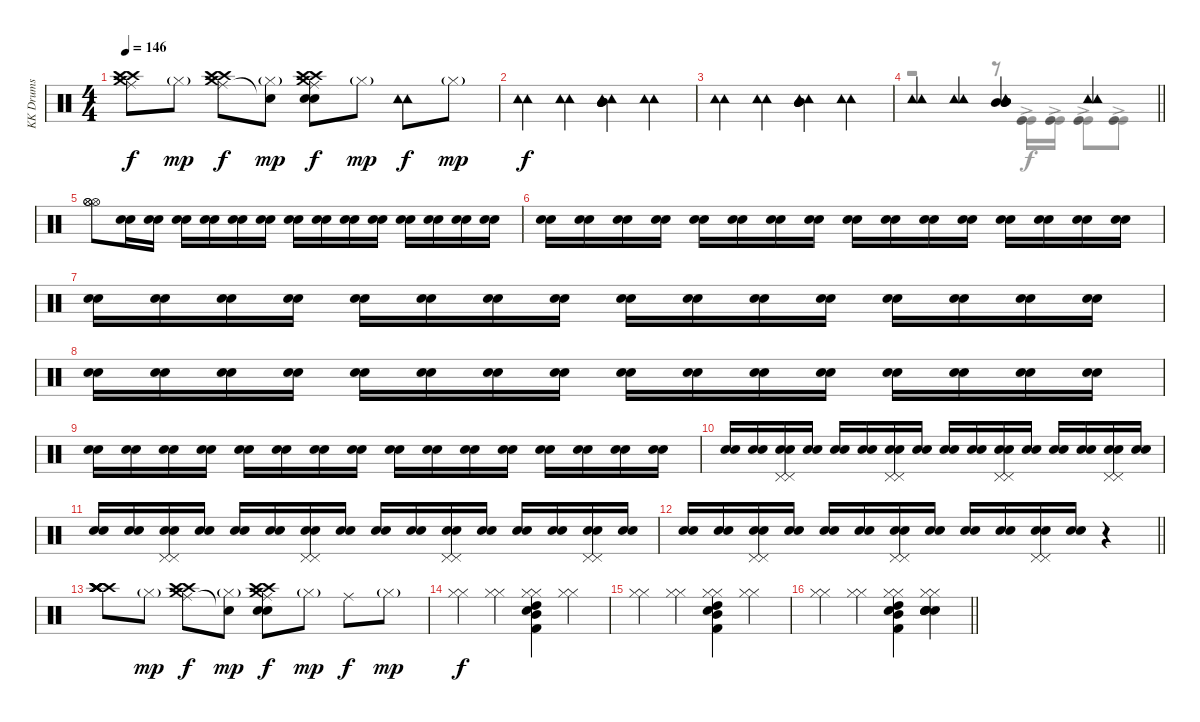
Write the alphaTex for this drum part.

\track ("KK Drums" "KK Drums") {instrument percussion}
\staff {score}
\articulation defaults
\voice
\ts (4 4)
\tempo 146
\clef neutral
\ks c
("Crash high (hit)" "Ride (middle)" "Crash medium (hit)" "Crash high (hit)").8{dy f} "Hi-Hat (closed)"{g}.8{dy mp} ("Crash high (hit)" "Ride (middle)" "Crash medium (hit)" "Crash high (hit)").8{dy f} ("Hi-Hat (closed)"{g} "Snare (hit)"{t}).8{dy mp} ("Crash high (hit)" "Ride (middle)" "Snare (hit) 2" "Snare (hit) 2" "Crash medium (hit)" "Crash high (hit)").8{dy f} "Hi-Hat (closed)"{g}.8{dy mp} ("Tambourine (hit)" "Tambourine (hit)").8{dy f} "Hi-Hat (closed)"{g}.8{dy mp} |
("Tambourine (hit)" "Tambourine (hit)").4{dy f} ("Tambourine (hit)" "Tambourine (hit)").4 ("Mid Tom (hit)" "Mid Tom (hit)" "Mid Tom (hit)" "Tambourine (hit)" "Tambourine (hit)").4 ("Tambourine (hit)" "Tambourine (hit)").4 |
("Tambourine (hit)" "Tambourine (hit)").4 ("Tambourine (hit)" "Tambourine (hit)").4 ("Mid Tom (hit)" "Mid Tom (hit)" "Mid Tom (hit)" "Tambourine (hit)" "Tambourine (hit)").4 ("Tambourine (hit)" "Tambourine (hit)").4 |
\barLineRight lightlight
("Tambourine (hit)" "Tambourine (hit)").4 ("Tambourine (hit)" "Tambourine (hit)").4 ("Mid Tom (hit)" "Mid Tom (hit)" "Mid Tom (hit)" "Tambourine (hit)" "Tambourine (hit)").4 ("Tambourine (hit)" "Tambourine (hit)").4 |
("Hi-Hat (open)" "Hi-Hat (open)" "Hi-Hat (open)").8{volume 16} ("Snare (hit) 2" "Snare (hit) 2").16 ("Snare (hit) 2" "Snare (hit) 2").16 ("Snare (hit) 2" "Snare (hit) 2").16 ("Snare (hit) 2" "Snare (hit) 2").16 ("Snare (hit) 2" "Snare (hit) 2").16 ("Snare (hit) 2" "Snare (hit) 2").16 ("Snare (hit) 2" "Snare (hit) 2").16 ("Snare (hit) 2" "Snare (hit) 2").16 ("Snare (hit) 2" "Snare (hit) 2").16 ("Snare (hit) 2" "Snare (hit) 2").16 ("Snare (hit) 2" "Snare (hit) 2").16 ("Snare (hit) 2" "Snare (hit) 2").16 ("Snare (hit) 2" "Snare (hit) 2").16 ("Snare (hit) 2" "Snare (hit) 2").16 |
("Snare (hit) 2" "Snare (hit) 2").16 ("Snare (hit) 2" "Snare (hit) 2").16 ("Snare (hit) 2" "Snare (hit) 2").16 ("Snare (hit) 2" "Snare (hit) 2").16 ("Snare (hit) 2" "Snare (hit) 2").16 ("Snare (hit) 2" "Snare (hit) 2").16 ("Snare (hit) 2" "Snare (hit) 2").16 ("Snare (hit) 2" "Snare (hit) 2").16 ("Snare (hit) 2" "Snare (hit) 2").16 ("Snare (hit) 2" "Snare (hit) 2").16 ("Snare (hit) 2" "Snare (hit) 2").16 ("Snare (hit) 2" "Snare (hit) 2").16 ("Snare (hit) 2" "Snare (hit) 2").16 ("Snare (hit) 2" "Snare (hit) 2").16 ("Snare (hit) 2" "Snare (hit) 2").16 ("Snare (hit) 2" "Snare (hit) 2").16 |
("Snare (hit) 2" "Snare (hit) 2").16 ("Snare (hit) 2" "Snare (hit) 2").16 ("Snare (hit) 2" "Snare (hit) 2").16 ("Snare (hit) 2" "Snare (hit) 2").16 ("Snare (hit) 2" "Snare (hit) 2").16 ("Snare (hit) 2" "Snare (hit) 2").16 ("Snare (hit) 2" "Snare (hit) 2").16 ("Snare (hit) 2" "Snare (hit) 2").16 ("Snare (hit) 2" "Snare (hit) 2").16 ("Snare (hit) 2" "Snare (hit) 2").16 ("Snare (hit) 2" "Snare (hit) 2").16 ("Snare (hit) 2" "Snare (hit) 2").16 ("Snare (hit) 2" "Snare (hit) 2").16 ("Snare (hit) 2" "Snare (hit) 2").16 ("Snare (hit) 2" "Snare (hit) 2").16 ("Snare (hit) 2" "Snare (hit) 2").16 |
("Snare (hit) 2" "Snare (hit) 2").16 ("Snare (hit) 2" "Snare (hit) 2").16 ("Snare (hit) 2" "Snare (hit) 2").16 ("Snare (hit) 2" "Snare (hit) 2").16 ("Snare (hit) 2" "Snare (hit) 2").16 ("Snare (hit) 2" "Snare (hit) 2").16 ("Snare (hit) 2" "Snare (hit) 2").16 ("Snare (hit) 2" "Snare (hit) 2").16 ("Snare (hit) 2" "Snare (hit) 2").16 ("Snare (hit) 2" "Snare (hit) 2").16 ("Snare (hit) 2" "Snare (hit) 2").16 ("Snare (hit) 2" "Snare (hit) 2").16 ("Snare (hit) 2" "Snare (hit) 2").16 ("Snare (hit) 2" "Snare (hit) 2").16 ("Snare (hit) 2" "Snare (hit) 2").16 ("Snare (hit) 2" "Snare (hit) 2").16 |
("Snare (hit) 2" "Snare (hit) 2").16 ("Snare (hit) 2" "Snare (hit) 2").16 ("Snare (hit) 2" "Snare (hit) 2").16 ("Snare (hit) 2" "Snare (hit) 2").16 ("Snare (hit) 2" "Snare (hit) 2").16 ("Snare (hit) 2" "Snare (hit) 2").16 ("Snare (hit) 2" "Snare (hit) 2").16 ("Snare (hit) 2" "Snare (hit) 2").16 ("Snare (hit) 2" "Snare (hit) 2").16 ("Snare (hit) 2" "Snare (hit) 2").16 ("Snare (hit) 2" "Snare (hit) 2").16 ("Snare (hit) 2" "Snare (hit) 2").16 ("Snare (hit) 2" "Snare (hit) 2").16 ("Snare (hit) 2" "Snare (hit) 2").16 ("Snare (hit) 2" "Snare (hit) 2").16 ("Snare (hit) 2" "Snare (hit) 2").16 |
("Snare (hit) 2" "Snare (hit) 2").16 ("Snare (hit) 2" "Snare (hit) 2").16 ("Pedal Hi-Hat (hit)" "Pedal Hi-Hat (hit)" "Snare (hit) 2" "Snare (hit) 2").16 ("Snare (hit) 2" "Snare (hit) 2").16 ("Snare (hit) 2" "Snare (hit) 2").16 ("Snare (hit) 2" "Snare (hit) 2").16 ("Pedal Hi-Hat (hit)" "Pedal Hi-Hat (hit)" "Snare (hit) 2" "Snare (hit) 2").16 ("Snare (hit) 2" "Snare (hit) 2").16 ("Snare (hit) 2" "Snare (hit) 2").16 ("Snare (hit) 2" "Snare (hit) 2").16 ("Pedal Hi-Hat (hit)" "Pedal Hi-Hat (hit)" "Snare (hit) 2" "Snare (hit) 2").16 ("Snare (hit) 2" "Snare (hit) 2").16 ("Snare (hit) 2" "Snare (hit) 2").16 ("Snare (hit) 2" "Snare (hit) 2").16 ("Pedal Hi-Hat (hit)" "Pedal Hi-Hat (hit)" "Snare (hit) 2" "Snare (hit) 2").16 ("Snare (hit) 2" "Snare (hit) 2").16 |
("Snare (hit) 2" "Snare (hit) 2").16 ("Snare (hit) 2" "Snare (hit) 2").16 ("Pedal Hi-Hat (hit)" "Pedal Hi-Hat (hit)" "Snare (hit) 2" "Snare (hit) 2").16 ("Snare (hit) 2" "Snare (hit) 2").16 ("Snare (hit) 2" "Snare (hit) 2").16 ("Snare (hit) 2" "Snare (hit) 2").16 ("Pedal Hi-Hat (hit)" "Pedal Hi-Hat (hit)" "Snare (hit) 2" "Snare (hit) 2").16 ("Snare (hit) 2" "Snare (hit) 2").16 ("Snare (hit) 2" "Snare (hit) 2").16 ("Snare (hit) 2" "Snare (hit) 2").16 ("Pedal Hi-Hat (hit)" "Pedal Hi-Hat (hit)" "Snare (hit) 2" "Snare (hit) 2").16 ("Snare (hit) 2" "Snare (hit) 2").16 ("Snare (hit) 2" "Snare (hit) 2").16 ("Snare (hit) 2" "Snare (hit) 2").16 ("Pedal Hi-Hat (hit)" "Pedal Hi-Hat (hit)" "Snare (hit) 2" "Snare (hit) 2").16 ("Snare (hit) 2" "Snare (hit) 2").16 |
\barLineRight lightlight
("Snare (hit) 2" "Snare (hit) 2").16 ("Snare (hit) 2" "Snare (hit) 2").16 ("Pedal Hi-Hat (hit)" "Pedal Hi-Hat (hit)" "Snare (hit) 2" "Snare (hit) 2").16 ("Snare (hit) 2" "Snare (hit) 2").16 ("Snare (hit) 2" "Snare (hit) 2").16 ("Snare (hit) 2" "Snare (hit) 2").16 ("Pedal Hi-Hat (hit)" "Pedal Hi-Hat (hit)" "Snare (hit) 2" "Snare (hit) 2").16 ("Snare (hit) 2" "Snare (hit) 2").16 ("Snare (hit) 2" "Snare (hit) 2").16 ("Snare (hit) 2" "Snare (hit) 2").16 ("Pedal Hi-Hat (hit)" "Pedal Hi-Hat (hit)" "Snare (hit) 2" "Snare (hit) 2").16 ("Snare (hit) 2" "Snare (hit) 2").16 r.4 |
("Crash high (hit)" "Crash high (hit)" "Crash high (hit)" "Crash high (hit)" "Crash high (hit)" "Crash high (hit)").8 "Hi-Hat (closed)"{g}.8{dy mp} ("Crash high (hit)" "Ride (middle)" "Crash medium (hit)" "Crash high (hit)").8{dy f} ("Hi-Hat (closed)"{g} "Snare (hit)"{t}).8{dy mp} ("Crash high (hit)" "Ride (middle)" "Snare (hit) 2" "Snare (hit) 2" "Crash medium (hit)" "Crash high (hit)").8{dy f} "Hi-Hat (closed)"{g}.8{dy mp} "Ride (middle)".8{dy f} "Hi-Hat (closed)"{g}.8{dy mp} |
("Hi-Hat (closed)" "Hi-Hat (closed)").4{dy f} ("Hi-Hat (closed)" "Hi-Hat (closed)").4 ("Kick (hit) 2" "High Tom (hit)" "Mid Tom (hit)" "Hi-Hat (closed)" "Hi-Hat (closed)" "Snare (hit) 2").4 ("Hi-Hat (closed)" "Hi-Hat (closed)").4 |
("Hi-Hat (closed)" "Hi-Hat (closed)").4 ("Hi-Hat (closed)" "Hi-Hat (closed)").4 ("Kick (hit) 2" "High Tom (hit)" "Mid Tom (hit)" "Hi-Hat (closed)" "Hi-Hat (closed)" "Snare (hit) 2").4 ("Hi-Hat (closed)" "Hi-Hat (closed)").4 |
\barLineRight lightlight
("Hi-Hat (closed)" "Hi-Hat (closed)").4 ("Hi-Hat (closed)" "Hi-Hat (closed)").4 ("Kick (hit) 2" "High Tom (hit)" "Mid Tom (hit)" "Hi-Hat (closed)" "Hi-Hat (closed)" "Snare (hit) 2").4 ("Snare (hit)" "Snare (hit)" "Snare (hit)" "Hi-Hat (closed)" "Hi-Hat (closed)" "Snare (hit)").4
\voice
\clef neutral
\ottava regular
\simile none
\ks c
|
|
|
\barLineRight lightlight
r.2 r.8 ("Kick (hit)"{ac} "Kick (hit)"{ac} "Kick (hit)"{ac}).16 ("Kick (hit)"{ac} "Kick (hit)"{ac} "Kick (hit)"{ac}).16 ("Kick (hit)"{ac} "Kick (hit)"{ac} "Kick (hit)"{ac}).8 ("Kick (hit)"{ac} "Kick (hit)"{ac} "Kick (hit)"{ac}).8 |
|
|
|
|
|
|
|
\barLineRight lightlight
|
|
|
|
\barLineRight lightlight
